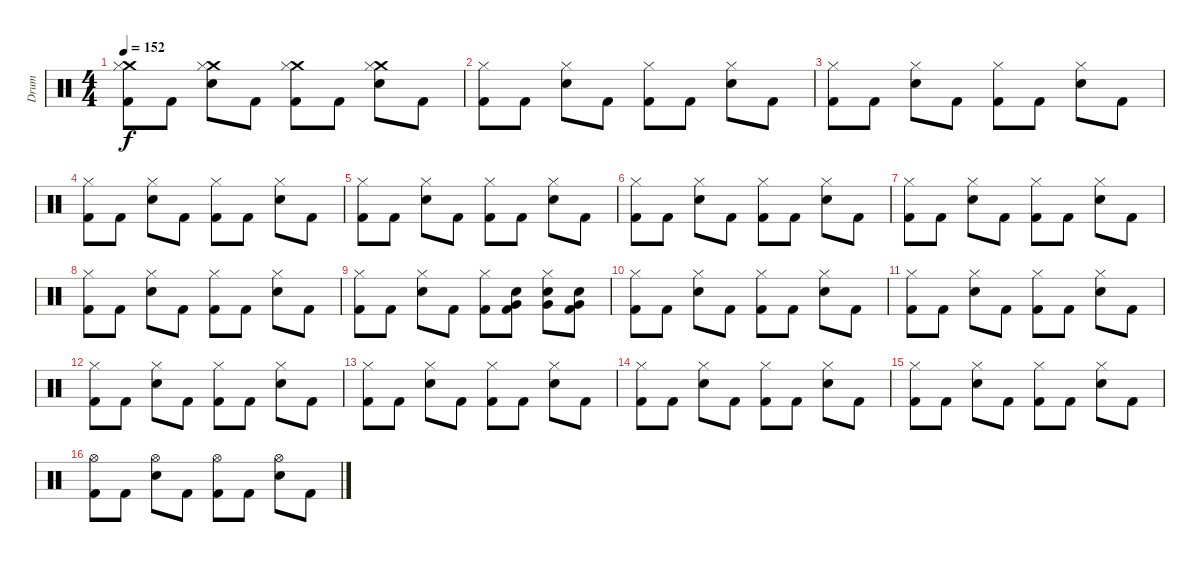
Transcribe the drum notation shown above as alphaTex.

\track ("Drum" "Drum") {instrument percussion}
\staff {score}
\articulation defaults
\ts (4 4)
\tempo 152
\clef neutral
\ks c
("Crash medium (hit)" "Hi-Hat (closed)" "Kick (hit) 2").8{dy f} "Kick (hit) 2".8 ("Crash medium (hit)" "Hi-Hat (closed)" "Electric Snare (hit)").8 "Kick (hit) 2".8 ("Crash medium (hit)" "Hi-Hat (closed)" "Kick (hit) 2").8 "Kick (hit) 2".8 ("Crash medium (hit)" "Hi-Hat (closed)" "Electric Snare (hit)").8 "Kick (hit) 2".8 |
("Hi-Hat (closed)" "Kick (hit) 2").8 "Kick (hit) 2".8 ("Hi-Hat (closed)" "Electric Snare (hit)").8 "Kick (hit) 2".8 ("Hi-Hat (closed)" "Kick (hit) 2").8 "Kick (hit) 2".8 ("Hi-Hat (closed)" "Electric Snare (hit)").8 "Kick (hit) 2".8 |
("Hi-Hat (closed)" "Kick (hit) 2").8 "Kick (hit) 2".8 ("Hi-Hat (closed)" "Electric Snare (hit)").8 "Kick (hit) 2".8 ("Hi-Hat (closed)" "Kick (hit) 2").8 "Kick (hit) 2".8 ("Hi-Hat (closed)" "Electric Snare (hit)").8 "Kick (hit) 2".8 |
("Hi-Hat (closed)" "Kick (hit) 2").8 "Kick (hit) 2".8 ("Hi-Hat (closed)" "Electric Snare (hit)").8 "Kick (hit) 2".8 ("Hi-Hat (closed)" "Kick (hit) 2").8 "Kick (hit) 2".8 ("Hi-Hat (closed)" "Electric Snare (hit)").8 "Kick (hit) 2".8 |
("Hi-Hat (closed)" "Kick (hit) 2").8 "Kick (hit) 2".8 ("Hi-Hat (closed)" "Electric Snare (hit)").8 "Kick (hit) 2".8 ("Hi-Hat (closed)" "Kick (hit) 2").8 "Kick (hit) 2".8 ("Hi-Hat (closed)" "Electric Snare (hit)").8 "Kick (hit) 2".8 |
("Hi-Hat (closed)" "Kick (hit) 2").8 "Kick (hit) 2".8 ("Hi-Hat (closed)" "Electric Snare (hit)").8 "Kick (hit) 2".8 ("Hi-Hat (closed)" "Kick (hit) 2").8 "Kick (hit) 2".8 ("Hi-Hat (closed)" "Electric Snare (hit)").8 "Kick (hit) 2".8 |
("Hi-Hat (closed)" "Kick (hit) 2").8 "Kick (hit) 2".8 ("Hi-Hat (closed)" "Electric Snare (hit)").8 "Kick (hit) 2".8 ("Hi-Hat (closed)" "Kick (hit) 2").8 "Kick (hit) 2".8 ("Hi-Hat (closed)" "Electric Snare (hit)").8 "Kick (hit) 2".8 |
("Hi-Hat (closed)" "Kick (hit) 2").8 "Kick (hit) 2".8 ("Hi-Hat (closed)" "Electric Snare (hit)").8 "Kick (hit) 2".8 ("Hi-Hat (closed)" "Kick (hit) 2").8 "Kick (hit) 2".8 ("Hi-Hat (closed)" "Electric Snare (hit)").8 "Kick (hit) 2".8 |
("Hi-Hat (closed)" "Kick (hit) 2").8 "Kick (hit) 2".8 ("Hi-Hat (closed)" "Electric Snare (hit)").8 "Kick (hit) 2".8 ("Hi-Hat (closed)" "Kick (hit) 2").8 ("Very Low Tom (hit)" "Electric Snare (hit)" "Kick (hit) 2").8 ("Hi-Hat (closed)" "Very Low Tom (hit)" "Electric Snare (hit)").8 ("Very Low Tom (hit)" "Electric Snare (hit)" "Kick (hit) 2").8 |
("Hi-Hat (closed)" "Kick (hit) 2").8 "Kick (hit) 2".8 ("Hi-Hat (closed)" "Electric Snare (hit)").8 "Kick (hit) 2".8 ("Hi-Hat (closed)" "Kick (hit) 2").8 "Kick (hit) 2".8 ("Hi-Hat (closed)" "Electric Snare (hit)").8 "Kick (hit) 2".8 |
("Hi-Hat (closed)" "Kick (hit) 2").8 "Kick (hit) 2".8 ("Hi-Hat (closed)" "Electric Snare (hit)").8 "Kick (hit) 2".8 ("Hi-Hat (closed)" "Kick (hit) 2").8 "Kick (hit) 2".8 ("Hi-Hat (closed)" "Electric Snare (hit)").8 "Kick (hit) 2".8 |
("Hi-Hat (closed)" "Kick (hit) 2").8 "Kick (hit) 2".8 ("Hi-Hat (closed)" "Electric Snare (hit)").8 "Kick (hit) 2".8 ("Hi-Hat (closed)" "Kick (hit) 2").8 "Kick (hit) 2".8 ("Hi-Hat (closed)" "Electric Snare (hit)").8 "Kick (hit) 2".8 |
("Hi-Hat (closed)" "Kick (hit) 2").8 "Kick (hit) 2".8 ("Hi-Hat (closed)" "Electric Snare (hit)").8 "Kick (hit) 2".8 ("Hi-Hat (closed)" "Kick (hit) 2").8 "Kick (hit) 2".8 ("Hi-Hat (closed)" "Electric Snare (hit)").8 "Kick (hit) 2".8 |
("Hi-Hat (closed)" "Kick (hit) 2").8 "Kick (hit) 2".8 ("Hi-Hat (closed)" "Electric Snare (hit)").8 "Kick (hit) 2".8 ("Hi-Hat (closed)" "Kick (hit) 2").8 "Kick (hit) 2".8 ("Hi-Hat (closed)" "Electric Snare (hit)").8 "Kick (hit) 2".8 |
("Hi-Hat (closed)" "Kick (hit) 2").8 "Kick (hit) 2".8 ("Hi-Hat (closed)" "Electric Snare (hit)").8 "Kick (hit) 2".8 ("Hi-Hat (closed)" "Kick (hit) 2").8 "Kick (hit) 2".8 ("Hi-Hat (closed)" "Electric Snare (hit)").8 "Kick (hit) 2".8 |
("Hi-Hat (open)" "Kick (hit) 2").8 "Kick (hit) 2".8 ("Hi-Hat (open)" "Electric Snare (hit)").8 "Kick (hit) 2".8 ("Hi-Hat (open)" "Kick (hit) 2").8 "Kick (hit) 2".8 ("Hi-Hat (open)" "Electric Snare (hit)").8 "Kick (hit) 2".8
